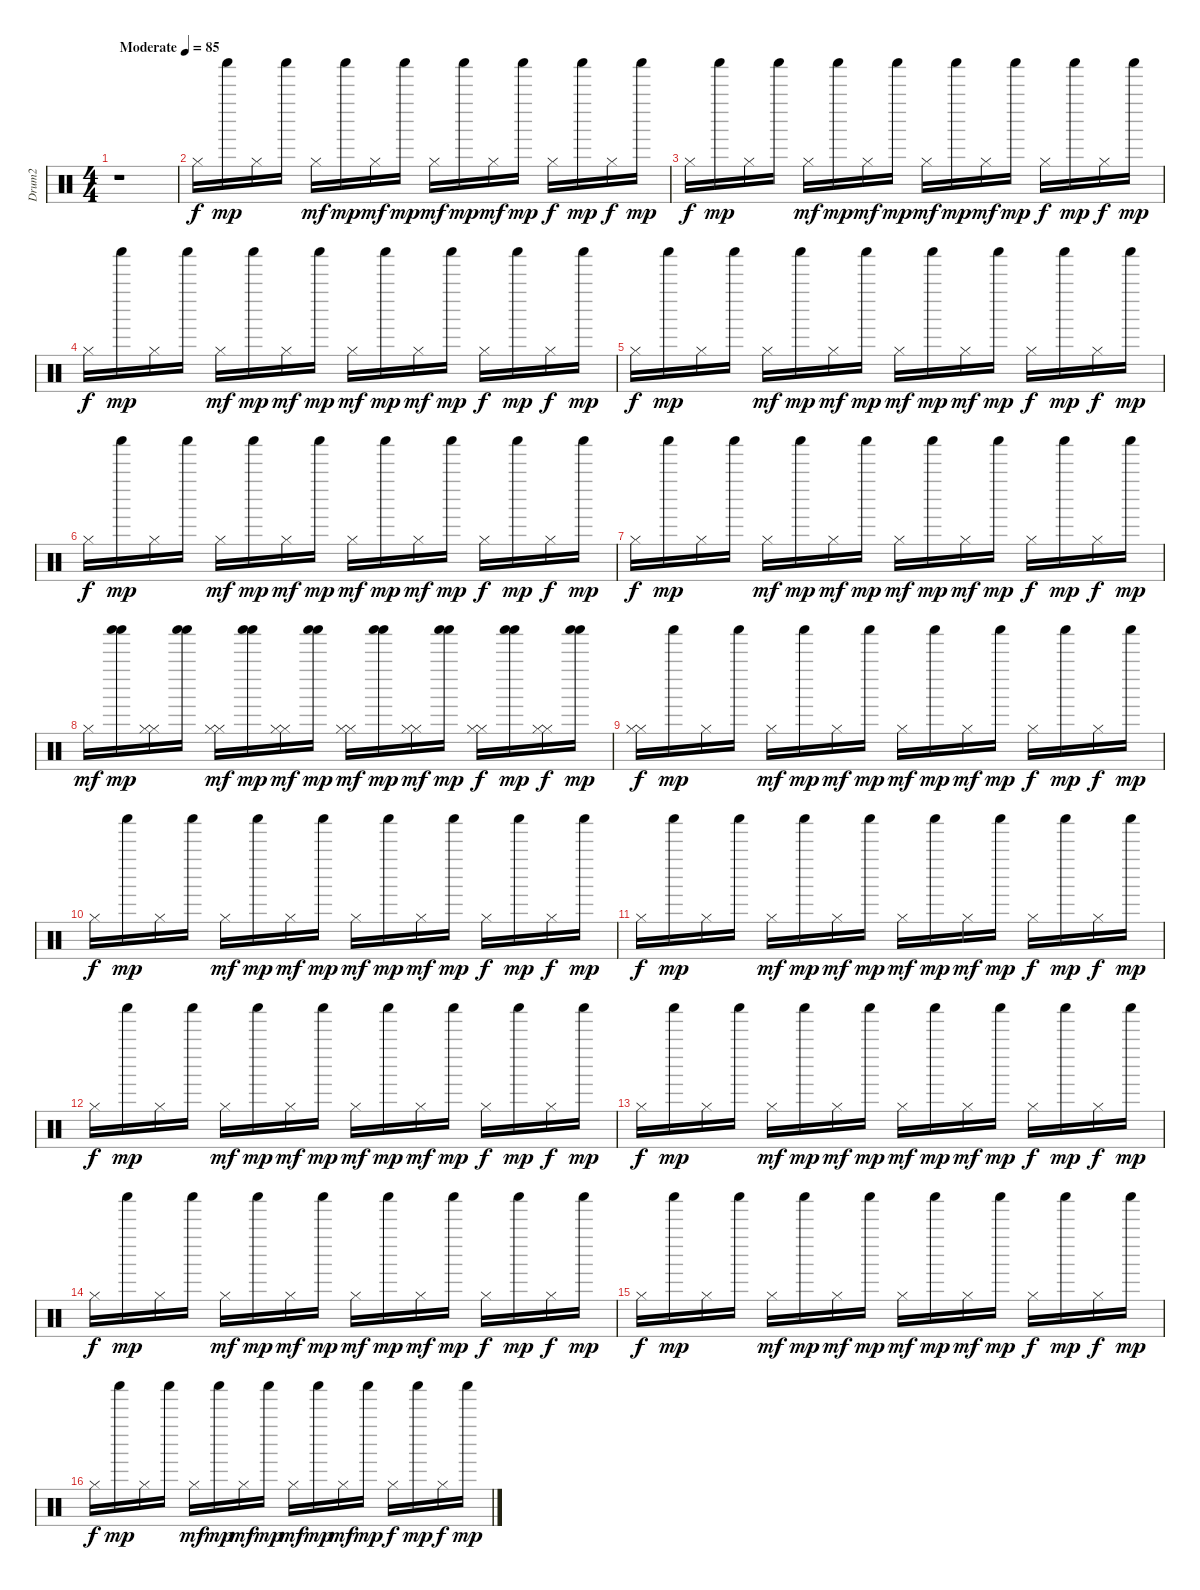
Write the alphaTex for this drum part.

\track ("Drum2" "Drum2") {instrument percussion}
\staff {score}
\articulation defaults
\ts (4 4)
\tempo (85 "Moderate")
\clef neutral
\ks c
r.1{dy f} |
"Hi-Hat (closed)".16 "Shaker (hit)".16{dy mp} "Hi-Hat (closed)".16 "Shaker (hit)".16 "Hi-Hat (closed)".16{dy mf} "Shaker (hit)".16{dy mp} "Hi-Hat (closed)".16{dy mf} "Shaker (hit)".16{dy mp} "Hi-Hat (closed)".16{dy mf} "Shaker (hit)".16{dy mp} "Hi-Hat (closed)".16{dy mf} "Shaker (hit)".16{dy mp} "Hi-Hat (closed)".16{dy f} "Shaker (hit)".16{dy mp} "Hi-Hat (closed)".16{dy f} "Shaker (hit)".16{dy mp} |
"Hi-Hat (closed)".16{dy f} "Shaker (hit)".16{dy mp} "Hi-Hat (closed)".16 "Shaker (hit)".16 "Hi-Hat (closed)".16{dy mf} "Shaker (hit)".16{dy mp} "Hi-Hat (closed)".16{dy mf} "Shaker (hit)".16{dy mp} "Hi-Hat (closed)".16{dy mf} "Shaker (hit)".16{dy mp} "Hi-Hat (closed)".16{dy mf} "Shaker (hit)".16{dy mp} "Hi-Hat (closed)".16{dy f} "Shaker (hit)".16{dy mp} "Hi-Hat (closed)".16{dy f} "Shaker (hit)".16{dy mp} |
"Hi-Hat (closed)".16{dy f} "Shaker (hit)".16{dy mp} "Hi-Hat (closed)".16 "Shaker (hit)".16 "Hi-Hat (closed)".16{dy mf} "Shaker (hit)".16{dy mp} "Hi-Hat (closed)".16{dy mf} "Shaker (hit)".16{dy mp} "Hi-Hat (closed)".16{dy mf} "Shaker (hit)".16{dy mp} "Hi-Hat (closed)".16{dy mf} "Shaker (hit)".16{dy mp} "Hi-Hat (closed)".16{dy f} "Shaker (hit)".16{dy mp} "Hi-Hat (closed)".16{dy f} "Shaker (hit)".16{dy mp} |
"Hi-Hat (closed)".16{dy f} "Shaker (hit)".16{dy mp} "Hi-Hat (closed)".16 "Shaker (hit)".16 "Hi-Hat (closed)".16{dy mf} "Shaker (hit)".16{dy mp} "Hi-Hat (closed)".16{dy mf} "Shaker (hit)".16{dy mp} "Hi-Hat (closed)".16{dy mf} "Shaker (hit)".16{dy mp} "Hi-Hat (closed)".16{dy mf} "Shaker (hit)".16{dy mp} "Hi-Hat (closed)".16{dy f} "Shaker (hit)".16{dy mp} "Hi-Hat (closed)".16{dy f} "Shaker (hit)".16{dy mp} |
"Hi-Hat (closed)".16{dy f} "Shaker (hit)".16{dy mp} "Hi-Hat (closed)".16 "Shaker (hit)".16 "Hi-Hat (closed)".16{dy mf} "Shaker (hit)".16{dy mp} "Hi-Hat (closed)".16{dy mf} "Shaker (hit)".16{dy mp} "Hi-Hat (closed)".16{dy mf} "Shaker (hit)".16{dy mp} "Hi-Hat (closed)".16{dy mf} "Shaker (hit)".16{dy mp} "Hi-Hat (closed)".16{dy f} "Shaker (hit)".16{dy mp} "Hi-Hat (closed)".16{dy f} "Shaker (hit)".16{dy mp} |
"Hi-Hat (closed)".16{dy f} "Shaker (hit)".16{dy mp} "Hi-Hat (closed)".16 "Shaker (hit)".16 "Hi-Hat (closed)".16{dy mf} "Shaker (hit)".16{dy mp} "Hi-Hat (closed)".16{dy mf} "Shaker (hit)".16{dy mp} "Hi-Hat (closed)".16{dy mf} "Shaker (hit)".16{dy mp} "Hi-Hat (closed)".16{dy mf} "Shaker (hit)".16{dy mp} "Hi-Hat (closed)".16{dy f} "Shaker (hit)".16{dy mp} "Hi-Hat (closed)".16{dy f} "Shaker (hit)".16{dy mp} |
"Hi-Hat (closed)".16{dy mf} ("Shaker (hit)" "Shaker (hit)").16{dy mp} ("Hi-Hat (closed)" "Hi-Hat (closed)").16 ("Shaker (hit)" "Shaker (hit)").16 ("Hi-Hat (closed)" "Hi-Hat (closed)").16{dy mf} ("Shaker (hit)" "Shaker (hit)").16{dy mp} ("Hi-Hat (closed)" "Hi-Hat (closed)").16{dy mf} ("Shaker (hit)" "Shaker (hit)").16{dy mp} ("Hi-Hat (closed)" "Hi-Hat (closed)").16{dy mf} ("Shaker (hit)" "Shaker (hit)").16{dy mp} ("Hi-Hat (closed)" "Hi-Hat (closed)").16{dy mf} ("Shaker (hit)" "Shaker (hit)").16{dy mp} ("Hi-Hat (closed)" "Hi-Hat (closed)").16{dy f} ("Shaker (hit)" "Shaker (hit)").16{dy mp} ("Hi-Hat (closed)" "Hi-Hat (closed)").16{dy f} ("Shaker (hit)" "Shaker (hit)").16{dy mp} |
("Hi-Hat (closed)" "Hi-Hat (closed)").16{dy f} "Shaker (hit)".16{dy mp} "Hi-Hat (closed)".16 "Shaker (hit)".16 "Hi-Hat (closed)".16{dy mf} "Shaker (hit)".16{dy mp} "Hi-Hat (closed)".16{dy mf} "Shaker (hit)".16{dy mp} "Hi-Hat (closed)".16{dy mf} "Shaker (hit)".16{dy mp} "Hi-Hat (closed)".16{dy mf} "Shaker (hit)".16{dy mp} "Hi-Hat (closed)".16{dy f} "Shaker (hit)".16{dy mp} "Hi-Hat (closed)".16{dy f} "Shaker (hit)".16{dy mp} |
"Hi-Hat (closed)".16{dy f} "Shaker (hit)".16{dy mp} "Hi-Hat (closed)".16 "Shaker (hit)".16 "Hi-Hat (closed)".16{dy mf} "Shaker (hit)".16{dy mp} "Hi-Hat (closed)".16{dy mf} "Shaker (hit)".16{dy mp} "Hi-Hat (closed)".16{dy mf} "Shaker (hit)".16{dy mp} "Hi-Hat (closed)".16{dy mf} "Shaker (hit)".16{dy mp} "Hi-Hat (closed)".16{dy f} "Shaker (hit)".16{dy mp} "Hi-Hat (closed)".16{dy f} "Shaker (hit)".16{dy mp} |
"Hi-Hat (closed)".16{dy f} "Shaker (hit)".16{dy mp} "Hi-Hat (closed)".16 "Shaker (hit)".16 "Hi-Hat (closed)".16{dy mf} "Shaker (hit)".16{dy mp} "Hi-Hat (closed)".16{dy mf} "Shaker (hit)".16{dy mp} "Hi-Hat (closed)".16{dy mf} "Shaker (hit)".16{dy mp} "Hi-Hat (closed)".16{dy mf} "Shaker (hit)".16{dy mp} "Hi-Hat (closed)".16{dy f} "Shaker (hit)".16{dy mp} "Hi-Hat (closed)".16{dy f} "Shaker (hit)".16{dy mp} |
"Hi-Hat (closed)".16{dy f} "Shaker (hit)".16{dy mp} "Hi-Hat (closed)".16 "Shaker (hit)".16 "Hi-Hat (closed)".16{dy mf} "Shaker (hit)".16{dy mp} "Hi-Hat (closed)".16{dy mf} "Shaker (hit)".16{dy mp} "Hi-Hat (closed)".16{dy mf} "Shaker (hit)".16{dy mp} "Hi-Hat (closed)".16{dy mf} "Shaker (hit)".16{dy mp} "Hi-Hat (closed)".16{dy f} "Shaker (hit)".16{dy mp} "Hi-Hat (closed)".16{dy f} "Shaker (hit)".16{dy mp} |
"Hi-Hat (closed)".16{dy f} "Shaker (hit)".16{dy mp} "Hi-Hat (closed)".16 "Shaker (hit)".16 "Hi-Hat (closed)".16{dy mf} "Shaker (hit)".16{dy mp} "Hi-Hat (closed)".16{dy mf} "Shaker (hit)".16{dy mp} "Hi-Hat (closed)".16{dy mf} "Shaker (hit)".16{dy mp} "Hi-Hat (closed)".16{dy mf} "Shaker (hit)".16{dy mp} "Hi-Hat (closed)".16{dy f} "Shaker (hit)".16{dy mp} "Hi-Hat (closed)".16{dy f} "Shaker (hit)".16{dy mp} |
"Hi-Hat (closed)".16{dy f} "Shaker (hit)".16{dy mp} "Hi-Hat (closed)".16 "Shaker (hit)".16 "Hi-Hat (closed)".16{dy mf} "Shaker (hit)".16{dy mp} "Hi-Hat (closed)".16{dy mf} "Shaker (hit)".16{dy mp} "Hi-Hat (closed)".16{dy mf} "Shaker (hit)".16{dy mp} "Hi-Hat (closed)".16{dy mf} "Shaker (hit)".16{dy mp} "Hi-Hat (closed)".16{dy f} "Shaker (hit)".16{dy mp} "Hi-Hat (closed)".16{dy f} "Shaker (hit)".16{dy mp} |
"Hi-Hat (closed)".16{dy f} "Shaker (hit)".16{dy mp} "Hi-Hat (closed)".16 "Shaker (hit)".16 "Hi-Hat (closed)".16{dy mf} "Shaker (hit)".16{dy mp} "Hi-Hat (closed)".16{dy mf} "Shaker (hit)".16{dy mp} "Hi-Hat (closed)".16{dy mf} "Shaker (hit)".16{dy mp} "Hi-Hat (closed)".16{dy mf} "Shaker (hit)".16{dy mp} "Hi-Hat (closed)".16{dy f} "Shaker (hit)".16{dy mp} "Hi-Hat (closed)".16{dy f} "Shaker (hit)".16{dy mp} |
"Hi-Hat (closed)".16{dy f} "Shaker (hit)".16{dy mp} "Hi-Hat (closed)".16 "Shaker (hit)".16 "Hi-Hat (closed)".16{dy mf} "Shaker (hit)".16{dy mp} "Hi-Hat (closed)".16{dy mf} "Shaker (hit)".16{dy mp} "Hi-Hat (closed)".16{dy mf} "Shaker (hit)".16{dy mp} "Hi-Hat (closed)".16{dy mf} "Shaker (hit)".16{dy mp} "Hi-Hat (closed)".16{dy f} "Shaker (hit)".16{dy mp} "Hi-Hat (closed)".16{dy f} "Shaker (hit)".16{dy mp}
